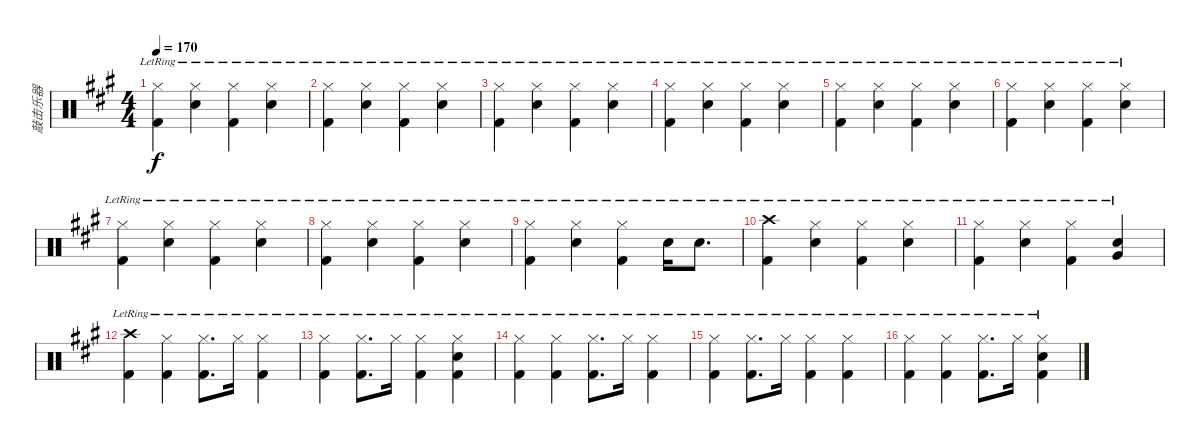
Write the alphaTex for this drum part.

\track ("敲击乐器" "敲击乐器") {instrument percussion}
\staff {score}
\articulation defaults
\ts (4 4)
\tempo 170
\clef neutral
\ks a
("Hi-Hat (closed)"{lr} "Kick (hit) 2"{lr}).4{dy f} ("Hi-Hat (closed)"{lr} "Snare (hit) 2"{lr}).4 ("Hi-Hat (closed)"{lr} "Kick (hit) 2"{lr}).4 ("Hi-Hat (closed)"{lr} "Snare (hit) 2"{lr}).4 |
("Hi-Hat (closed)"{lr} "Kick (hit) 2"{lr}).4 ("Hi-Hat (closed)"{lr} "Snare (hit) 2"{lr}).4 ("Hi-Hat (closed)"{lr} "Kick (hit) 2"{lr}).4 ("Hi-Hat (closed)"{lr} "Snare (hit) 2"{lr}).4 |
("Hi-Hat (closed)"{lr} "Kick (hit) 2"{lr}).4 ("Hi-Hat (closed)"{lr} "Snare (hit) 2"{lr}).4 ("Hi-Hat (closed)"{lr} "Kick (hit) 2"{lr}).4 ("Hi-Hat (closed)"{lr} "Snare (hit) 2"{lr}).4 |
("Hi-Hat (closed)"{lr} "Kick (hit) 2"{lr}).4 ("Hi-Hat (closed)"{lr} "Snare (hit) 2"{lr}).4 ("Hi-Hat (closed)"{lr} "Kick (hit) 2"{lr}).4 ("Hi-Hat (closed)"{lr} "Snare (hit) 2"{lr}).4 |
("Hi-Hat (closed)"{lr} "Kick (hit) 2"{lr}).4 ("Hi-Hat (closed)"{lr} "Snare (hit) 2"{lr}).4 ("Hi-Hat (closed)"{lr} "Kick (hit) 2"{lr}).4 ("Hi-Hat (closed)"{lr} "Snare (hit) 2"{lr}).4 |
("Hi-Hat (closed)"{lr} "Kick (hit) 2"{lr}).4 ("Hi-Hat (closed)"{lr} "Snare (hit) 2"{lr}).4 ("Hi-Hat (closed)"{lr} "Kick (hit) 2"{lr}).4 ("Hi-Hat (closed)"{lr} "Snare (hit) 2"{lr}).4 |
("Hi-Hat (closed)"{lr} "Kick (hit) 2"{lr}).4 ("Hi-Hat (closed)"{lr} "Snare (hit) 2"{lr}).4 ("Hi-Hat (closed)"{lr} "Kick (hit) 2"{lr}).4 ("Hi-Hat (closed)"{lr} "Snare (hit) 2"{lr}).4 |
("Hi-Hat (closed)"{lr} "Kick (hit) 2"{lr}).4 ("Hi-Hat (closed)"{lr} "Snare (hit) 2"{lr}).4 ("Hi-Hat (closed)"{lr} "Kick (hit) 2"{lr}).4 ("Hi-Hat (closed)"{lr} "Snare (hit) 2"{lr}).4 |
("Hi-Hat (closed)"{lr} "Kick (hit) 2"{lr}).4 ("Hi-Hat (closed)"{lr} "Snare (hit) 2"{lr}).4 ("Hi-Hat (closed)"{lr} "Kick (hit) 2"{lr}).4 "Snare (hit) 2"{lr}.16 "Snare (hit) 2"{lr}.8{d} |
("Crash high (hit)"{lr} "Kick (hit) 2"{lr}).4 ("Hi-Hat (closed)"{lr} "Snare (hit) 2"{lr}).4 ("Hi-Hat (closed)"{lr} "Kick (hit) 2"{lr}).4 ("Hi-Hat (closed)"{lr} "Snare (hit) 2"{lr}).4 |
("Hi-Hat (closed)"{lr} "Kick (hit) 2"{lr}).4 ("Hi-Hat (closed)"{lr} "Snare (hit) 2"{lr}).4 ("Hi-Hat (closed)"{lr} "Kick (hit) 2"{lr}).4 ("Snare (hit) 2"{lr} "Very Low Tom (hit)"{lr}).4 |
("Crash high (hit)"{lr} "Kick (hit) 2"{lr}).4 ("Hi-Hat (closed)"{lr} "Kick (hit) 2"{lr}).4 ("Hi-Hat (closed)"{lr} "Kick (hit) 2"{lr}).8{d} "Hi-Hat (closed)"{lr}.16 ("Hi-Hat (closed)"{lr} "Kick (hit) 2"{lr}).4 |
("Hi-Hat (closed)"{lr} "Kick (hit) 2"{lr}).4 ("Hi-Hat (closed)"{lr} "Kick (hit) 2"{lr}).8{d} "Hi-Hat (closed)"{lr}.16 ("Hi-Hat (closed)"{lr} "Kick (hit) 2"{lr}).4 ("Hi-Hat (closed)"{lr} "Snare (hit) 2"{lr} "Kick (hit) 2"{lr}).4 |
("Hi-Hat (closed)"{lr} "Kick (hit) 2"{lr}).4 ("Hi-Hat (closed)"{lr} "Kick (hit) 2"{lr}).4 ("Hi-Hat (closed)"{lr} "Kick (hit) 2"{lr}).8{d} "Hi-Hat (closed)"{lr}.16 ("Hi-Hat (closed)"{lr} "Kick (hit) 2"{lr}).4 |
("Hi-Hat (closed)"{lr} "Kick (hit) 2"{lr}).4 ("Hi-Hat (closed)"{lr} "Kick (hit) 2"{lr}).8{d} "Hi-Hat (closed)"{lr}.16 ("Hi-Hat (closed)"{lr} "Kick (hit) 2"{lr}).4 ("Hi-Hat (closed)"{lr} "Kick (hit) 2"{lr}).4 |
("Hi-Hat (closed)"{lr} "Kick (hit) 2"{lr}).4 ("Hi-Hat (closed)"{lr} "Kick (hit) 2"{lr}).4 ("Hi-Hat (closed)"{lr} "Kick (hit) 2"{lr}).8{d} "Hi-Hat (closed)"{lr}.16 ("Hi-Hat (closed)"{lr} "Snare (hit) 2"{lr} "Kick (hit) 2"{lr}).4
